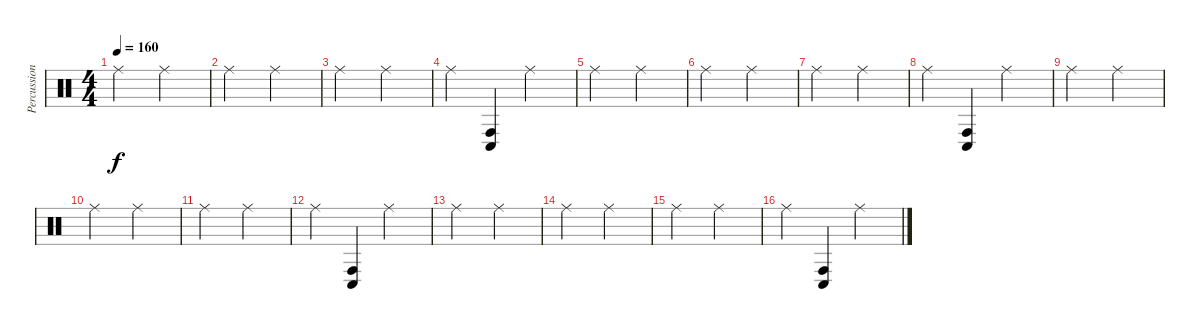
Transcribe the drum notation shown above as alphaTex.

\track ("Percussion" "Percussion") {instrument percussion}
\staff {score}
\articulation defaults
\ts (4 4)
\tempo 160
\clef neutral
\ks c "Ride (middle)".2{dy f} "Ride (middle)".2
|
"Ride (middle)".2 "Ride (middle)".2 |
"Ride (middle)".2 "Ride (middle)".2 |
"Ride (middle)".4 ("Conga low (hit)" "Conga high (hit)").4 "Ride (middle)".2 |
"Ride (middle)".2 "Ride (middle)".2 |
"Ride (middle)".2 "Ride (middle)".2 |
"Ride (middle)".2 "Ride (middle)".2 |
"Ride (middle)".4 ("Conga low (hit)" "Conga high (hit)").4 "Ride (middle)".2 |
"Ride (middle)".2 "Ride (middle)".2 |
"Ride (middle)".2 "Ride (middle)".2 |
"Ride (middle)".2 "Ride (middle)".2 |
"Ride (middle)".4 ("Conga low (hit)" "Conga high (hit)").4 "Ride (middle)".2 |
"Ride (middle)".2 "Ride (middle)".2 |
"Ride (middle)".2 "Ride (middle)".2 |
"Ride (middle)".2 "Ride (middle)".2 |
"Ride (middle)".4 ("Conga low (hit)" "Conga high (hit)").4 "Ride (middle)".2
